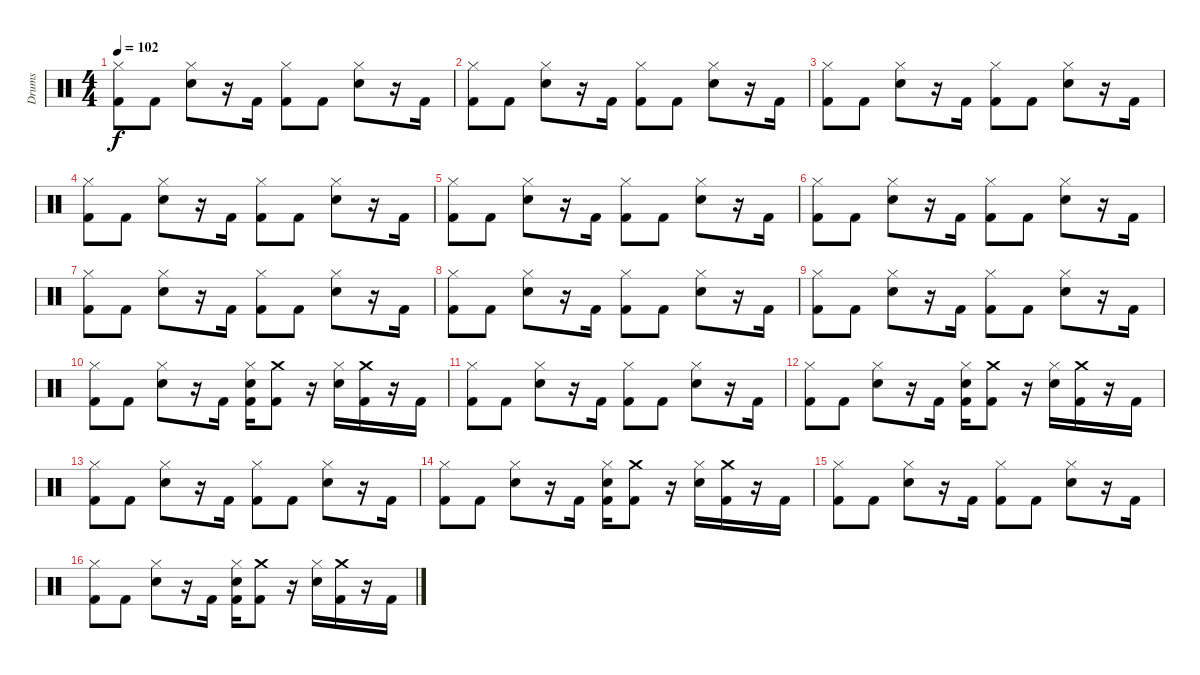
\track ("Drums" "Drums") {instrument percussion}
\staff {score}
\articulation defaults
\ts (4 4)
\tempo 102
\clef neutral
\ks c
("Hi-Hat (closed)" "Kick (hit) 2").8{dy f} "Kick (hit) 2".8 ("Hi-Hat (closed)" "Snare (hit) 2").8 r.16 "Kick (hit) 2".16 ("Hi-Hat (closed)" "Kick (hit) 2").8 "Kick (hit) 2".8 ("Hi-Hat (closed)" "Snare (hit) 2").8 r.16 "Kick (hit) 2".16 |
("Hi-Hat (closed)" "Kick (hit) 2").8 "Kick (hit) 2".8 ("Hi-Hat (closed)" "Snare (hit) 2").8 r.16 "Kick (hit) 2".16 ("Hi-Hat (closed)" "Kick (hit) 2").8 "Kick (hit) 2".8 ("Hi-Hat (closed)" "Snare (hit) 2").8 r.16 "Kick (hit) 2".16 |
("Hi-Hat (closed)" "Kick (hit) 2").8 "Kick (hit) 2".8 ("Hi-Hat (closed)" "Snare (hit) 2").8 r.16 "Kick (hit) 2".16 ("Hi-Hat (closed)" "Kick (hit) 2").8 "Kick (hit) 2".8 ("Hi-Hat (closed)" "Snare (hit) 2").8 r.16 "Kick (hit) 2".16 |
("Hi-Hat (closed)" "Kick (hit) 2").8 "Kick (hit) 2".8 ("Hi-Hat (closed)" "Snare (hit) 2").8 r.16 "Kick (hit) 2".16 ("Hi-Hat (closed)" "Kick (hit) 2").8 "Kick (hit) 2".8 ("Hi-Hat (closed)" "Snare (hit) 2").8 r.16 "Kick (hit) 2".16 |
("Hi-Hat (closed)" "Kick (hit) 2").8 "Kick (hit) 2".8 ("Hi-Hat (closed)" "Snare (hit) 2").8 r.16 "Kick (hit) 2".16 ("Hi-Hat (closed)" "Kick (hit) 2").8 "Kick (hit) 2".8 ("Hi-Hat (closed)" "Snare (hit) 2").8 r.16 "Kick (hit) 2".16 |
("Hi-Hat (closed)" "Kick (hit) 2").8 "Kick (hit) 2".8 ("Hi-Hat (closed)" "Snare (hit) 2").8 r.16 "Kick (hit) 2".16 ("Hi-Hat (closed)" "Kick (hit) 2").8 "Kick (hit) 2".8 ("Hi-Hat (closed)" "Snare (hit) 2").8 r.16 "Kick (hit) 2".16 |
("Hi-Hat (closed)" "Kick (hit) 2").8 "Kick (hit) 2".8 ("Hi-Hat (closed)" "Snare (hit) 2").8 r.16 "Kick (hit) 2".16 ("Hi-Hat (closed)" "Kick (hit) 2").8 "Kick (hit) 2".8 ("Hi-Hat (closed)" "Snare (hit) 2").8 r.16 "Kick (hit) 2".16 |
("Hi-Hat (closed)" "Kick (hit) 2").8 "Kick (hit) 2".8 ("Hi-Hat (closed)" "Snare (hit) 2").8 r.16 "Kick (hit) 2".16 ("Hi-Hat (closed)" "Kick (hit) 2").8 "Kick (hit) 2".8 ("Hi-Hat (closed)" "Snare (hit) 2").8 r.16 "Kick (hit) 2".16 |
("Hi-Hat (closed)" "Kick (hit) 2").8 "Kick (hit) 2".8 ("Hi-Hat (closed)" "Snare (hit) 2").8 r.16 "Kick (hit) 2".16 ("Hi-Hat (closed)" "Kick (hit) 2").8 "Kick (hit) 2".8 ("Hi-Hat (closed)" "Snare (hit) 2").8 r.16 "Kick (hit) 2".16 |
("Hi-Hat (closed)" "Kick (hit) 2").8 "Kick (hit) 2".8 ("Hi-Hat (closed)" "Snare (hit) 2").8 r.16 "Kick (hit) 2".16 ("Hi-Hat (closed)" "Snare (hit) 2" "Kick (hit) 2").16 ("Crash medium (hit)" "Kick (hit) 2").8 r.16 ("Hi-Hat (closed)" "Snare (hit) 2").16 ("Crash medium (hit)" "Kick (hit) 2").16 r.16 "Kick (hit) 2".16 |
("Hi-Hat (closed)" "Kick (hit) 2").8 "Kick (hit) 2".8 ("Hi-Hat (closed)" "Snare (hit) 2").8 r.16 "Kick (hit) 2".16 ("Hi-Hat (closed)" "Kick (hit) 2").8 "Kick (hit) 2".8 ("Hi-Hat (closed)" "Snare (hit) 2").8 r.16 "Kick (hit) 2".16 |
("Hi-Hat (closed)" "Kick (hit) 2").8 "Kick (hit) 2".8 ("Hi-Hat (closed)" "Snare (hit) 2").8 r.16 "Kick (hit) 2".16 ("Hi-Hat (closed)" "Snare (hit) 2" "Kick (hit) 2").16 ("Crash medium (hit)" "Kick (hit) 2").8 r.16 ("Hi-Hat (closed)" "Snare (hit) 2").16 ("Crash medium (hit)" "Kick (hit) 2").16 r.16 "Kick (hit) 2".16 |
("Hi-Hat (closed)" "Kick (hit) 2").8 "Kick (hit) 2".8 ("Hi-Hat (closed)" "Snare (hit) 2").8 r.16 "Kick (hit) 2".16 ("Hi-Hat (closed)" "Kick (hit) 2").8 "Kick (hit) 2".8 ("Hi-Hat (closed)" "Snare (hit) 2").8 r.16 "Kick (hit) 2".16 |
("Hi-Hat (closed)" "Kick (hit) 2").8 "Kick (hit) 2".8 ("Hi-Hat (closed)" "Snare (hit) 2").8 r.16 "Kick (hit) 2".16 ("Hi-Hat (closed)" "Snare (hit) 2" "Kick (hit) 2").16 ("Crash medium (hit)" "Kick (hit) 2").8 r.16 ("Hi-Hat (closed)" "Snare (hit) 2").16 ("Crash medium (hit)" "Kick (hit) 2").16 r.16 "Kick (hit) 2".16 |
("Hi-Hat (closed)" "Kick (hit) 2").8 "Kick (hit) 2".8 ("Hi-Hat (closed)" "Snare (hit) 2").8 r.16 "Kick (hit) 2".16 ("Hi-Hat (closed)" "Kick (hit) 2").8 "Kick (hit) 2".8 ("Hi-Hat (closed)" "Snare (hit) 2").8 r.16 "Kick (hit) 2".16 |
("Hi-Hat (closed)" "Kick (hit) 2").8 "Kick (hit) 2".8 ("Hi-Hat (closed)" "Snare (hit) 2").8 r.16 "Kick (hit) 2".16 ("Hi-Hat (closed)" "Snare (hit) 2" "Kick (hit) 2").16 ("Crash medium (hit)" "Kick (hit) 2").8 r.16 ("Hi-Hat (closed)" "Snare (hit) 2").16 ("Crash medium (hit)" "Kick (hit) 2").16 r.16 "Kick (hit) 2".16
